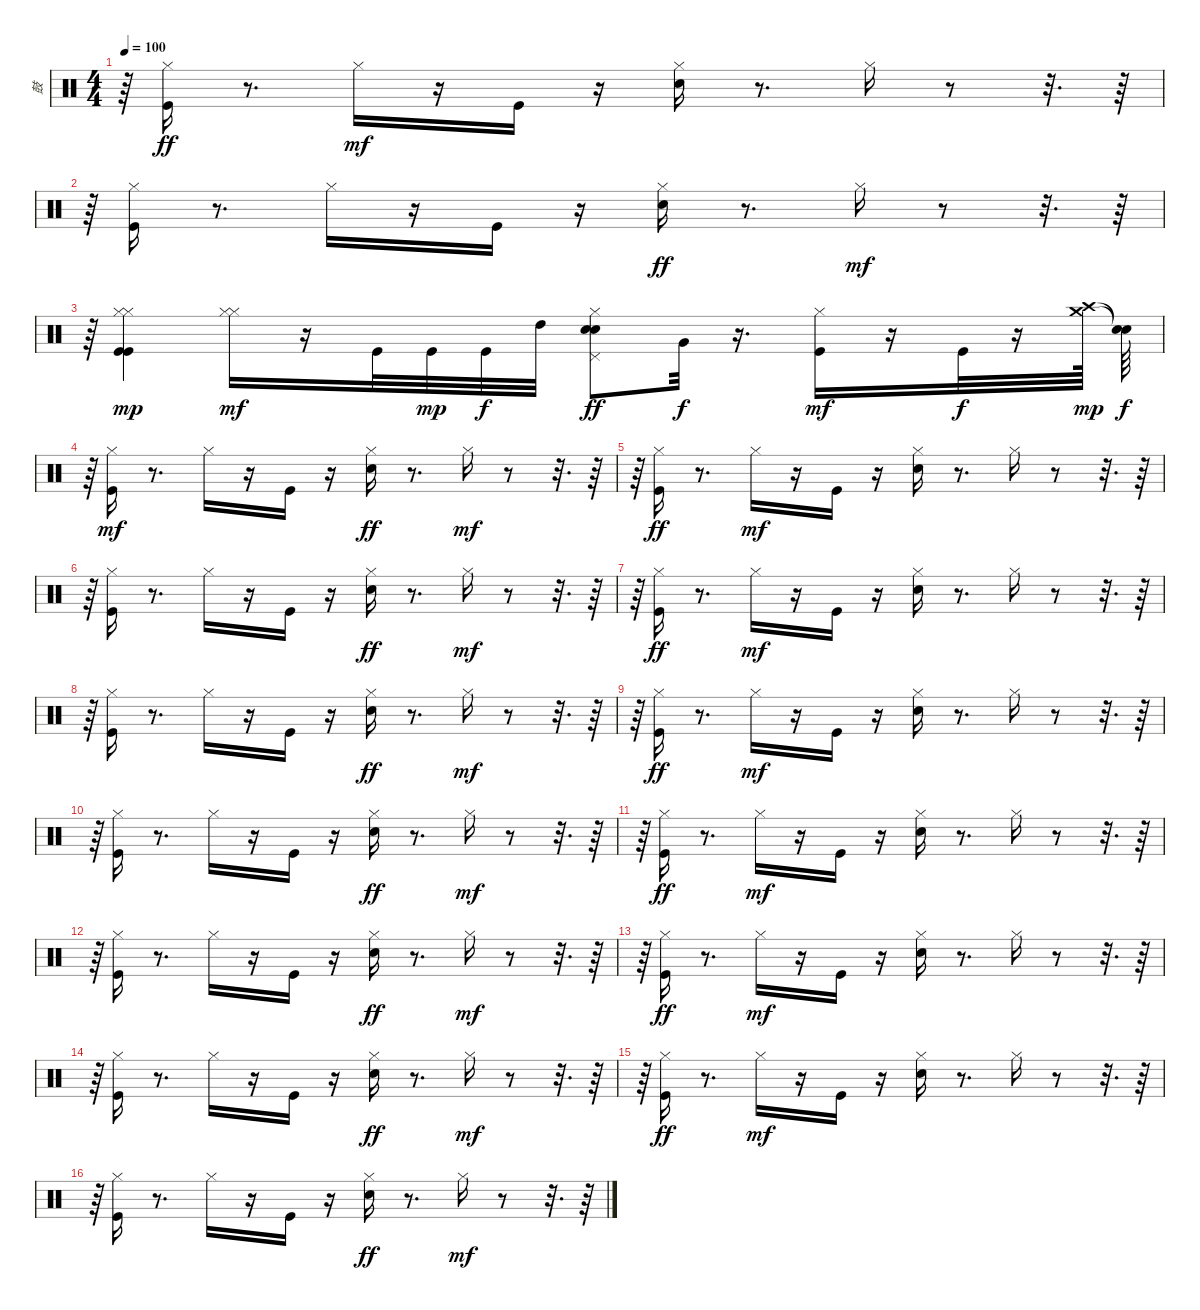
\track ("鼓" "鼓") {instrument percussion}
\staff {score}
\articulation defaults
\ts (4 4)
\tempo 100
\clef neutral
\ks c
r.64{dy mf} ("Kick (hit)" "Hi-Hat (closed)").16{dy ff} r.8{d} "Hi-Hat (closed)".16{dy mf} r.16 "Kick (hit)".16 r.16 ("Electric Snare (hit)" "Hi-Hat (closed)").16 r.8{d} "Hi-Hat (closed)".16 r.8 r.32{d} r.64 |
r.64 ("Kick (hit)" "Hi-Hat (closed)").16 r.8{d} "Hi-Hat (closed)".16 r.16 "Kick (hit)".16 r.16 ("Hi-Hat (closed)" "Electric Snare (hit)").16{dy ff} r.8{d} "Hi-Hat (closed)".16{dy mf} r.8 r.32{d} r.64 |
r.64 ("Kick (hit)" "Kick (hit)" "Hi-Hat (closed)" "Hi-Hat (closed)").4{dy mp} ("Hi-Hat (closed)" "Hi-Hat (closed)").16{dy mf} r.16 "Kick (hit)".32 "Kick (hit)".32{dy mp} "Kick (hit)".32{dy f} "High Tom (hit)".32 ("Pedal Hi-Hat (hit)" "Electric Snare (hit)" "Hi-Hat (closed)" "Electric Snare (hit)").8{dy ff} "Very Low Tom (hit)".32{dy f} r.16{d} ("Kick (hit)" "Hi-Hat (closed)").16{dy mf} r.16 "Kick (hit)".32{dy f} r.16 ("Crash medium (hit)" "Crash high (hit)").64{dy mp} ("Snare (hit)"{t} "Snare (hit)"{t}).64{dy f} |
r.64 ("Kick (hit)" "Hi-Hat (closed)").16{dy mf} r.8{d} "Hi-Hat (closed)".16 r.16 "Kick (hit)".16 r.16 ("Hi-Hat (closed)" "Electric Snare (hit)").16{dy ff} r.8{d} "Hi-Hat (closed)".16{dy mf} r.8 r.32{d} r.64 |
r.64 ("Kick (hit)" "Hi-Hat (closed)").16{dy ff} r.8{d} "Hi-Hat (closed)".16{dy mf} r.16 "Kick (hit)".16 r.16 ("Electric Snare (hit)" "Hi-Hat (closed)").16 r.8{d} "Hi-Hat (closed)".16 r.8 r.32{d} r.64 |
r.64 ("Kick (hit)" "Hi-Hat (closed)").16 r.8{d} "Hi-Hat (closed)".16 r.16 "Kick (hit)".16 r.16 ("Hi-Hat (closed)" "Electric Snare (hit)").16{dy ff} r.8{d} "Hi-Hat (closed)".16{dy mf} r.8 r.32{d} r.64 |
r.64 ("Kick (hit)" "Hi-Hat (closed)").16{dy ff} r.8{d} "Hi-Hat (closed)".16{dy mf} r.16 "Kick (hit)".16 r.16 ("Electric Snare (hit)" "Hi-Hat (closed)").16 r.8{d} "Hi-Hat (closed)".16 r.8 r.32{d} r.64 |
r.64 ("Kick (hit)" "Hi-Hat (closed)").16 r.8{d} "Hi-Hat (closed)".16 r.16 "Kick (hit)".16 r.16 ("Hi-Hat (closed)" "Electric Snare (hit)").16{dy ff} r.8{d} "Hi-Hat (closed)".16{dy mf} r.8 r.32{d} r.64 |
r.64 ("Kick (hit)" "Hi-Hat (closed)").16{dy ff} r.8{d} "Hi-Hat (closed)".16{dy mf} r.16 "Kick (hit)".16 r.16 ("Electric Snare (hit)" "Hi-Hat (closed)").16 r.8{d} "Hi-Hat (closed)".16 r.8 r.32{d} r.64 |
r.64 ("Kick (hit)" "Hi-Hat (closed)").16 r.8{d} "Hi-Hat (closed)".16 r.16 "Kick (hit)".16 r.16 ("Hi-Hat (closed)" "Electric Snare (hit)").16{dy ff} r.8{d} "Hi-Hat (closed)".16{dy mf} r.8 r.32{d} r.64 |
r.64 ("Kick (hit)" "Hi-Hat (closed)").16{dy ff} r.8{d} "Hi-Hat (closed)".16{dy mf} r.16 "Kick (hit)".16 r.16 ("Electric Snare (hit)" "Hi-Hat (closed)").16 r.8{d} "Hi-Hat (closed)".16 r.8 r.32{d} r.64 |
r.64 ("Kick (hit)" "Hi-Hat (closed)").16 r.8{d} "Hi-Hat (closed)".16 r.16 "Kick (hit)".16 r.16 ("Hi-Hat (closed)" "Electric Snare (hit)").16{dy ff} r.8{d} "Hi-Hat (closed)".16{dy mf} r.8 r.32{d} r.64 |
r.64 ("Kick (hit)" "Hi-Hat (closed)").16{dy ff} r.8{d} "Hi-Hat (closed)".16{dy mf} r.16 "Kick (hit)".16 r.16 ("Electric Snare (hit)" "Hi-Hat (closed)").16 r.8{d} "Hi-Hat (closed)".16 r.8 r.32{d} r.64 |
r.64 ("Kick (hit)" "Hi-Hat (closed)").16 r.8{d} "Hi-Hat (closed)".16 r.16 "Kick (hit)".16 r.16 ("Hi-Hat (closed)" "Electric Snare (hit)").16{dy ff} r.8{d} "Hi-Hat (closed)".16{dy mf} r.8 r.32{d} r.64 |
r.64 ("Kick (hit)" "Hi-Hat (closed)").16{dy ff} r.8{d} "Hi-Hat (closed)".16{dy mf} r.16 "Kick (hit)".16 r.16 ("Electric Snare (hit)" "Hi-Hat (closed)").16 r.8{d} "Hi-Hat (closed)".16 r.8 r.32{d} r.64 |
r.64 ("Kick (hit)" "Hi-Hat (closed)").16 r.8{d} "Hi-Hat (closed)".16 r.16 "Kick (hit)".16 r.16 ("Hi-Hat (closed)" "Electric Snare (hit)").16{dy ff} r.8{d} "Hi-Hat (closed)".16{dy mf} r.8 r.32{d} r.64
